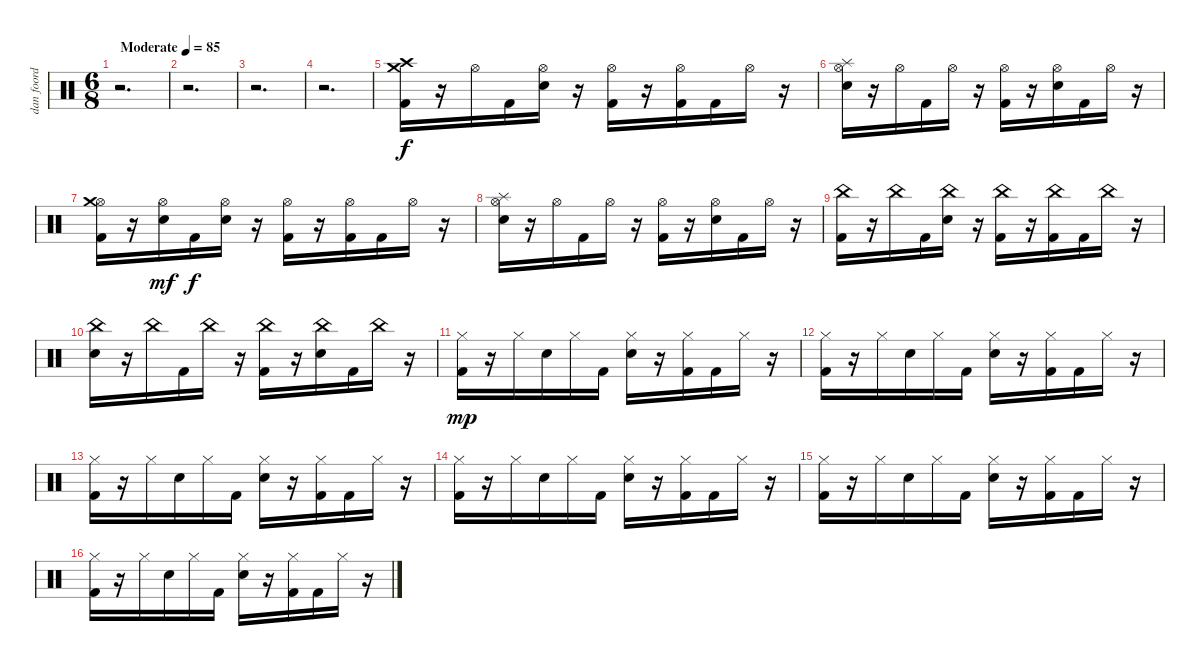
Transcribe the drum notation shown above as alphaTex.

\track ("dan foord" "dan foord") {instrument percussion}
\staff {score}
\articulation defaults
\ts (6 8)
\tempo (85 "Moderate")
\clef neutral
\ks c
r.2{d dy f} |
r.2{d} |
r.2{d} |
r.2{d} |
("Kick (hit) 2" "Crash high (hit)" "Crash medium (hit)").16 r.16 "Hi-Hat (open)".16 "Kick (hit) 2".16 ("Snare (hit) 2" "Hi-Hat (open)").16 r.16 ("Kick (hit) 2" "Hi-Hat (open)").16 r.16 ("Kick (hit) 2" "Hi-Hat (open)").16 "Kick (hit) 2".16 "Hi-Hat (open)".16 r.16 |
("Snare (hit) 2" "Hi-Hat (open)" "Splash (hit)").16 r.16 "Hi-Hat (open)".16 "Kick (hit) 2".16 "Hi-Hat (open)".16 r.16 ("Kick (hit) 2" "Hi-Hat (open)").16 r.16 ("Snare (hit) 2" "Hi-Hat (open)").16 "Kick (hit) 2".16 "Hi-Hat (open)".16 r.16 |
("Kick (hit) 2" "Hi-Hat (open)" "Crash medium (hit)").16 r.16 ("Snare (hit) 2" "Hi-Hat (open)").16{dy mf} "Kick (hit) 2".16{dy f} ("Snare (hit) 2" "Hi-Hat (open)").16 r.16 ("Kick (hit) 2" "Hi-Hat (open)").16 r.16 ("Kick (hit) 2" "Hi-Hat (open)").16 "Kick (hit) 2".16 "Hi-Hat (open)".16 r.16 |
("Snare (hit) 2" "Hi-Hat (open)" "Splash (hit)").16 r.16 "Hi-Hat (open)".16 "Kick (hit) 2".16 "Hi-Hat (open)".16 r.16 ("Kick (hit) 2" "Hi-Hat (open)").16 r.16 ("Snare (hit) 2" "Hi-Hat (open)").16 "Kick (hit) 2".16 "Hi-Hat (open)".16 r.16 |
("Kick (hit) 2" "China (hit)").16 r.16 "China (hit)".16 "Kick (hit) 2".16 ("Snare (hit) 2" "China (hit)").16 r.16 ("Kick (hit) 2" "China (hit)").16 r.16 ("Kick (hit) 2" "China (hit)").16 "Kick (hit) 2".16 "China (hit)".16 r.16 |
("Snare (hit) 2" "China (hit)").16 r.16 "China (hit)".16 "Kick (hit) 2".16 "China (hit)".16 r.16 ("Kick (hit) 2" "China (hit)").16 r.16 ("Snare (hit) 2" "China (hit)").16 "Kick (hit) 2".16 "China (hit)".16 r.16 |
("Kick (hit) 2" "Hi-Hat (closed)").16{dy mp} r.16 "Hi-Hat (closed)".16 "Snare (hit) 2".16 "Hi-Hat (closed)".16 "Kick (hit) 2".16 ("Snare (hit) 2" "Hi-Hat (closed)").16 r.16 ("Kick (hit) 2" "Hi-Hat (closed)").16 "Kick (hit) 2".16 "Hi-Hat (closed)".16 r.16 |
("Kick (hit) 2" "Hi-Hat (closed)").16 r.16 "Hi-Hat (closed)".16 "Snare (hit) 2".16 "Hi-Hat (closed)".16 "Kick (hit) 2".16 ("Snare (hit) 2" "Hi-Hat (closed)").16 r.16 ("Kick (hit) 2" "Hi-Hat (closed)").16 "Kick (hit) 2".16 "Hi-Hat (closed)".16 r.16 |
("Kick (hit) 2" "Hi-Hat (closed)").16 r.16 "Hi-Hat (closed)".16 "Snare (hit) 2".16 "Hi-Hat (closed)".16 "Kick (hit) 2".16 ("Snare (hit) 2" "Hi-Hat (closed)").16 r.16 ("Kick (hit) 2" "Hi-Hat (closed)").16 "Kick (hit) 2".16 "Hi-Hat (closed)".16 r.16 |
("Kick (hit) 2" "Hi-Hat (closed)").16 r.16 "Hi-Hat (closed)".16 "Snare (hit) 2".16 "Hi-Hat (closed)".16 "Kick (hit) 2".16 ("Snare (hit) 2" "Hi-Hat (closed)").16 r.16 ("Kick (hit) 2" "Hi-Hat (closed)").16 "Kick (hit) 2".16 "Hi-Hat (closed)".16 r.16 |
("Kick (hit) 2" "Hi-Hat (closed)").16 r.16 "Hi-Hat (closed)".16 "Snare (hit) 2".16 "Hi-Hat (closed)".16 "Kick (hit) 2".16 ("Snare (hit) 2" "Hi-Hat (closed)").16 r.16 ("Kick (hit) 2" "Hi-Hat (closed)").16 "Kick (hit) 2".16 "Hi-Hat (closed)".16 r.16 |
("Kick (hit) 2" "Hi-Hat (closed)").16 r.16 "Hi-Hat (closed)".16 "Snare (hit) 2".16 "Hi-Hat (closed)".16 "Kick (hit) 2".16 ("Snare (hit) 2" "Hi-Hat (closed)").16 r.16 ("Kick (hit) 2" "Hi-Hat (closed)").16 "Kick (hit) 2".16 "Hi-Hat (closed)".16 r.16
